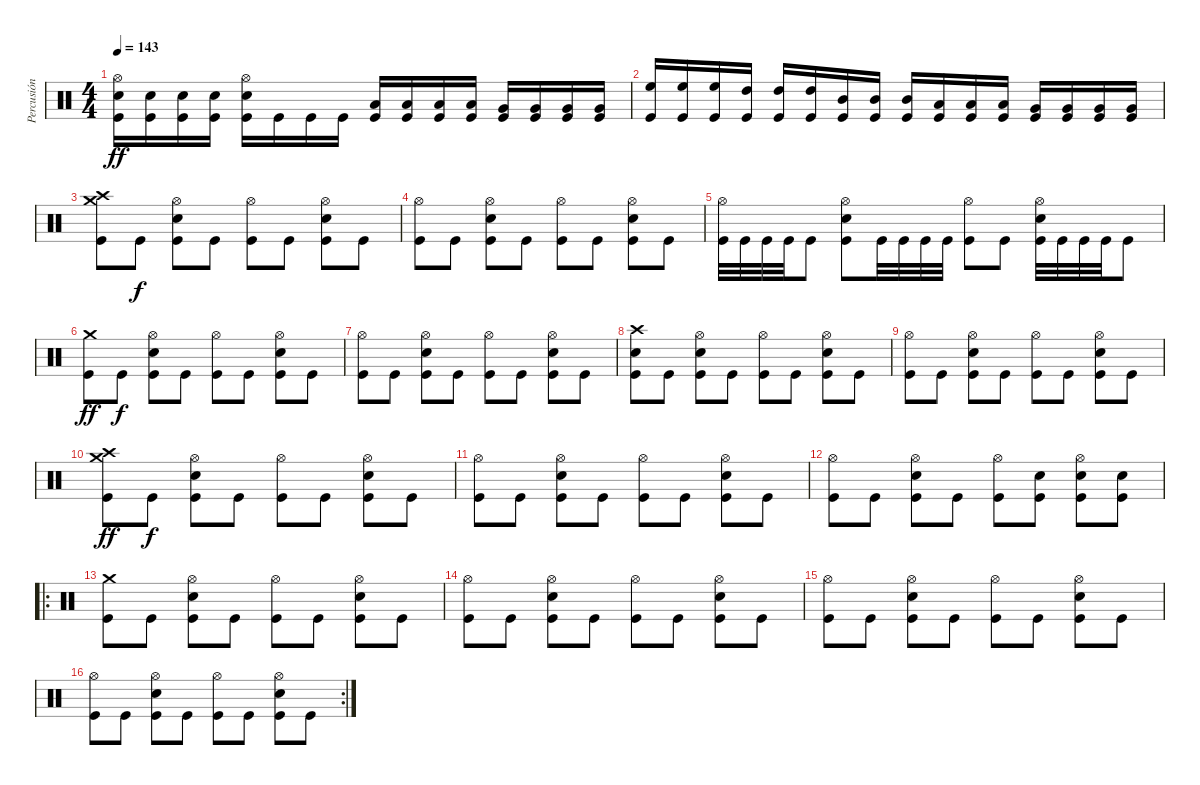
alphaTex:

\track ("Percusión" "Percusión") {instrument percussion}
\staff {score}
\articulation defaults
\ts (4 4)
\tempo 143
\clef neutral
\ks c
("Hi-Hat (open)" "Snare (hit) 2" "Kick (hit)").16{dy ff} ("Snare (hit) 2" "Kick (hit)").16 ("Snare (hit) 2" "Kick (hit)").16 ("Snare (hit) 2" "Kick (hit)").16 ("Hi-Hat (open)" "Snare (hit) 2" "Kick (hit)").16 "Kick (hit)".16 "Kick (hit)".16 "Kick (hit)".16 ("Low Floor Tom (hit)" "Kick (hit)").16 ("Low Floor Tom (hit)" "Kick (hit)").16 ("Low Floor Tom (hit)" "Kick (hit)").16 ("Low Floor Tom (hit)" "Kick (hit)").16 ("Very Low Tom (hit)" "Kick (hit)").16 ("Very Low Tom (hit)" "Kick (hit)").16 ("Very Low Tom (hit)" "Kick (hit)").16 ("Very Low Tom (hit)" "Kick (hit)").16 |
("High Floor Tom (hit)" "Kick (hit)").16 ("High Floor Tom (hit)" "Kick (hit)").16 ("High Floor Tom (hit)" "Kick (hit)").16 ("High Tom (hit)" "Kick (hit)").16 ("High Tom (hit)" "Kick (hit)").16 ("High Tom (hit)" "Kick (hit)").16 ("Mid Tom (hit)" "Kick (hit)").16 ("Mid Tom (hit)" "Kick (hit)").16 ("Mid Tom (hit)" "Kick (hit)").16 ("Low Tom (hit)" "Kick (hit)").16 ("Low Tom (hit)" "Kick (hit)").16 ("Low Tom (hit)" "Kick (hit)").16 ("Very Low Tom (hit)" "Kick (hit)").16 ("Very Low Tom (hit)" "Kick (hit)").16 ("Very Low Tom (hit)" "Kick (hit)").16 ("Very Low Tom (hit)" "Kick (hit)").16 |
("Crash high (hit)" "Crash medium (hit)" "Kick (hit)").8 "Kick (hit)".8{dy f} ("Hi-Hat (open)" "Snare (hit) 2" "Kick (hit)").8 "Kick (hit)".8 ("Hi-Hat (open)" "Kick (hit)").8 "Kick (hit)".8 ("Hi-Hat (open)" "Snare (hit) 2" "Kick (hit)").8 "Kick (hit)".8 |
("Hi-Hat (open)" "Kick (hit)").8 "Kick (hit)".8 ("Hi-Hat (open)" "Snare (hit) 2" "Kick (hit)").8 "Kick (hit)".8 ("Hi-Hat (open)" "Kick (hit)").8 "Kick (hit)".8 ("Hi-Hat (open)" "Snare (hit) 2" "Kick (hit)").8 "Kick (hit)".8 |
("Hi-Hat (open)" "Kick (hit)").32 "Kick (hit)".32 "Kick (hit)".32 "Kick (hit)".32 "Kick (hit)".8 ("Hi-Hat (open)" "Snare (hit) 2" "Kick (hit)").8 "Kick (hit)".32 "Kick (hit)".32 "Kick (hit)".32 "Kick (hit)".32 ("Hi-Hat (open)" "Kick (hit)").8 "Kick (hit)".8 ("Hi-Hat (open)" "Snare (hit) 2" "Kick (hit)").32 "Kick (hit)".32 "Kick (hit)".32 "Kick (hit)".32 "Kick (hit)".8 |
("Crash medium (hit)" "Kick (hit)").8{dy ff} "Kick (hit)".8{dy f} ("Hi-Hat (open)" "Snare (hit) 2" "Kick (hit)").8 "Kick (hit)".8 ("Hi-Hat (open)" "Kick (hit)").8 "Kick (hit)".8 ("Hi-Hat (open)" "Snare (hit) 2" "Kick (hit)").8 "Kick (hit)".8 |
("Hi-Hat (open)" "Kick (hit)").8 "Kick (hit)".8 ("Hi-Hat (open)" "Snare (hit) 2" "Kick (hit)").8 "Kick (hit)".8 ("Hi-Hat (open)" "Kick (hit)").8 "Kick (hit)".8 ("Hi-Hat (open)" "Snare (hit) 2" "Kick (hit)").8 "Kick (hit)".8 |
("Crash high (hit)" "Snare (hit) 2" "Kick (hit)").8 "Kick (hit)".8 ("Hi-Hat (open)" "Snare (hit) 2" "Kick (hit)").8 "Kick (hit)".8 ("Hi-Hat (open)" "Kick (hit)").8 "Kick (hit)".8 ("Hi-Hat (open)" "Snare (hit) 2" "Kick (hit)").8 "Kick (hit)".8 |
("Hi-Hat (open)" "Kick (hit)").8 "Kick (hit)".8 ("Hi-Hat (open)" "Snare (hit) 2" "Kick (hit)").8 "Kick (hit)".8 ("Hi-Hat (open)" "Kick (hit)").8 "Kick (hit)".8 ("Hi-Hat (open)" "Snare (hit) 2" "Kick (hit)").8 "Kick (hit)".8 |
("Crash medium (hit)" "Crash high (hit)" "Kick (hit)").8{dy ff} "Kick (hit)".8{dy f} ("Hi-Hat (open)" "Snare (hit) 2" "Kick (hit)").8 "Kick (hit)".8 ("Hi-Hat (open)" "Kick (hit)").8 "Kick (hit)".8 ("Hi-Hat (open)" "Snare (hit) 2" "Kick (hit)").8 "Kick (hit)".8 |
("Hi-Hat (open)" "Kick (hit)").8 "Kick (hit)".8 ("Hi-Hat (open)" "Snare (hit) 2" "Kick (hit)").8 "Kick (hit)".8 ("Hi-Hat (open)" "Kick (hit)").8 "Kick (hit)".8 ("Hi-Hat (open)" "Snare (hit) 2" "Kick (hit)").8 "Kick (hit)".8 |
("Hi-Hat (open)" "Kick (hit)").8 "Kick (hit)".8 ("Hi-Hat (open)" "Snare (hit) 2" "Kick (hit)").8 "Kick (hit)".8 ("Hi-Hat (open)" "Kick (hit)").8 ("Snare (hit) 2" "Kick (hit)").8 ("Hi-Hat (open)" "Snare (hit) 2" "Kick (hit)").8 ("Snare (hit) 2" "Kick (hit)").8 |
\ro
("Crash medium (hit)" "Kick (hit)").8 "Kick (hit)".8 ("Hi-Hat (open)" "Snare (hit) 2" "Kick (hit)").8 "Kick (hit)".8 ("Hi-Hat (open)" "Kick (hit)").8 "Kick (hit)".8 ("Hi-Hat (open)" "Snare (hit) 2" "Kick (hit)").8 "Kick (hit)".8 |
("Hi-Hat (open)" "Kick (hit)").8 "Kick (hit)".8 ("Hi-Hat (open)" "Snare (hit) 2" "Kick (hit)").8 "Kick (hit)".8 ("Hi-Hat (open)" "Kick (hit)").8 "Kick (hit)".8 ("Hi-Hat (open)" "Snare (hit) 2" "Kick (hit)").8 "Kick (hit)".8 |
("Hi-Hat (open)" "Kick (hit)").8 "Kick (hit)".8 ("Hi-Hat (open)" "Snare (hit) 2" "Kick (hit)").8 "Kick (hit)".8 ("Hi-Hat (open)" "Kick (hit)").8 "Kick (hit)".8 ("Hi-Hat (open)" "Snare (hit) 2" "Kick (hit)").8 "Kick (hit)".8 |
\rc 2
("Hi-Hat (open)" "Kick (hit)").8 "Kick (hit)".8 ("Hi-Hat (open)" "Snare (hit) 2" "Kick (hit)").8 "Kick (hit)".8 ("Hi-Hat (open)" "Kick (hit)").8 "Kick (hit)".8 ("Hi-Hat (open)" "Snare (hit) 2" "Kick (hit)").8 "Kick (hit)".8
